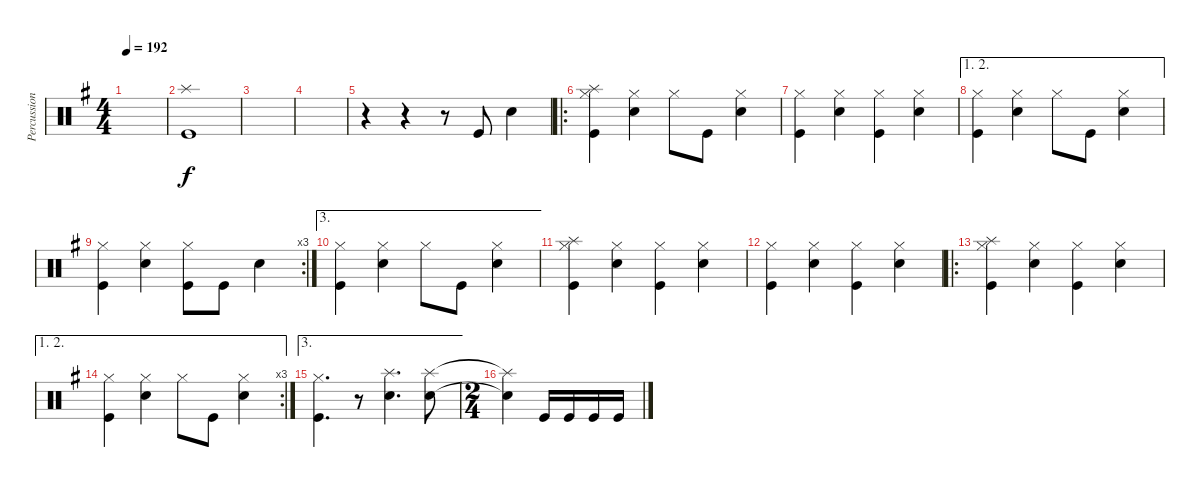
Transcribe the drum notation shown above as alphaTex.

\track ("Percussion" "Percussion") {instrument percussion}
\staff {score}
\articulation defaults
\ts (4 4)
\tempo 192
\clef neutral
\ks g
|
("Splash (hit)" "Kick (hit)").1 |
|
|
r.4 r.4 r.8 "Kick (hit)".8 "Snare (hit) 2".4 |
\ro
("Hi-Hat (closed)" "Splash (hit)" "Kick (hit)").4 ("Hi-Hat (closed)" "Snare (hit) 2").4 "Hi-Hat (closed)".8 "Kick (hit)".8 ("Snare (hit) 2" "Hi-Hat (closed)").4 |
("Hi-Hat (closed)" "Kick (hit)").4 ("Hi-Hat (closed)" "Snare (hit) 2").4 ("Hi-Hat (closed)" "Kick (hit)").4 ("Hi-Hat (closed)" "Snare (hit) 2").4 |
\ae (1 2)
("Hi-Hat (closed)" "Kick (hit)").4 ("Hi-Hat (closed)" "Snare (hit) 2").4 "Hi-Hat (closed)".8 "Kick (hit)".8 ("Snare (hit) 2" "Hi-Hat (closed)").4 |
\rc 3
("Hi-Hat (closed)" "Kick (hit)").4 ("Hi-Hat (closed)" "Snare (hit) 2").4 ("Hi-Hat (closed)" "Kick (hit)").8 "Kick (hit)".8 "Snare (hit) 2".4 |
\ae 3
("Hi-Hat (closed)" "Kick (hit)").4 ("Hi-Hat (closed)" "Snare (hit) 2").4 "Hi-Hat (closed)".8 "Kick (hit)".8 ("Snare (hit) 2" "Hi-Hat (closed)").4 |
("Splash (hit)" "Kick (hit)" "Hi-Hat (closed)").4 ("Hi-Hat (closed)" "Snare (hit) 2").4 ("Hi-Hat (closed)" "Kick (hit)").4 ("Hi-Hat (closed)" "Snare (hit) 2").4 |
("Hi-Hat (closed)" "Kick (hit)").4 ("Hi-Hat (closed)" "Snare (hit) 2").4 ("Hi-Hat (closed)" "Kick (hit)").4 ("Hi-Hat (closed)" "Snare (hit) 2").4 |
\ro
("Splash (hit)" "Kick (hit)" "Hi-Hat (closed)").4 ("Hi-Hat (closed)" "Snare (hit) 2").4 ("Hi-Hat (closed)" "Kick (hit)").4 ("Hi-Hat (closed)" "Snare (hit) 2").4 |
\ae (1 2)
\rc 3
("Hi-Hat (closed)" "Kick (hit)").4 ("Hi-Hat (closed)" "Snare (hit) 2").4 "Hi-Hat (closed)".8 "Kick (hit)".8 ("Snare (hit) 2" "Hi-Hat (closed)").4 |
\ae 3
("Hi-Hat (closed)" "Kick (hit)").4{d} r.8 ("Splash (hit)" "Snare (hit) 2").4{d} ("Splash (hit)" "Snare (hit) 2").8 |
\ts (2 4)
("Splash (hit)"{t} "Snare (hit) 2"{t}).4 "Kick (hit)".16 "Kick (hit)".16 "Kick (hit)".16 "Kick (hit)".16
